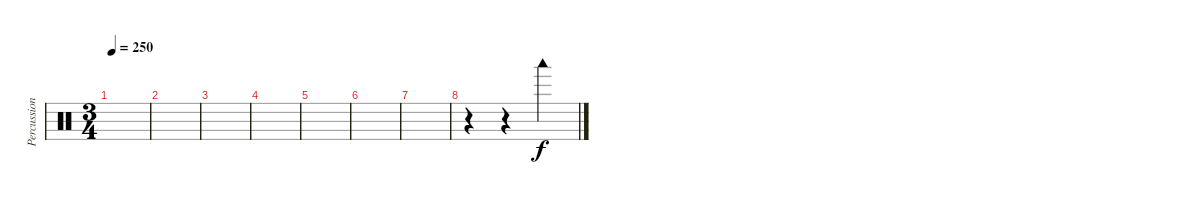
\track ("Percussion" "Percussion") {instrument percussion}
\staff {score}
\articulation defaults
\ts (3 4)
\tempo 250
\clef neutral
\ks c
|
|
|
|
|
|
|
r.4 r.4 "Woodblock low (hit)".4
